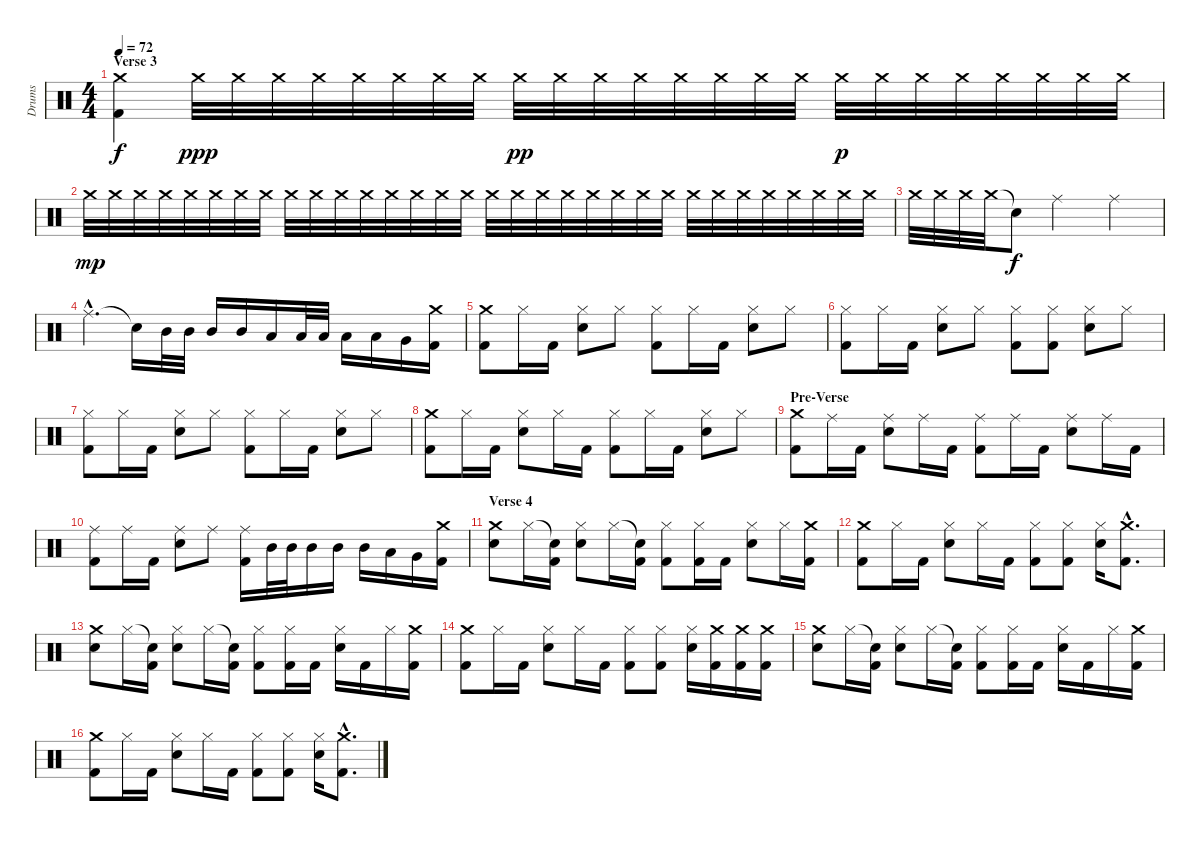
\track ("Drums" "Drums") {instrument percussion}
\staff {score}
\articulation defaults
\ts (4 4)
\section ("" "Verse 3")
\tempo 72
\clef neutral
\ks c
("Crash medium (hit)" "Kick (hit) 2").4{dy f} "Crash medium (hit)".32{dy ppp} "Crash medium (hit)".32 "Crash medium (hit)".32 "Crash medium (hit)".32 "Crash medium (hit)".32 "Crash medium (hit)".32 "Crash medium (hit)".32 "Crash medium (hit)".32 "Crash medium (hit)".32{dy pp} "Crash medium (hit)".32 "Crash medium (hit)".32 "Crash medium (hit)".32 "Crash medium (hit)".32 "Crash medium (hit)".32 "Crash medium (hit)".32 "Crash medium (hit)".32 "Crash medium (hit)".32{dy p} "Crash medium (hit)".32 "Crash medium (hit)".32 "Crash medium (hit)".32 "Crash medium (hit)".32 "Crash medium (hit)".32 "Crash medium (hit)".32 "Crash medium (hit)".32 |
"Crash medium (hit)".32{dy mp} "Crash medium (hit)".32 "Crash medium (hit)".32 "Crash medium (hit)".32 "Crash medium (hit)".32 "Crash medium (hit)".32 "Crash medium (hit)".32 "Crash medium (hit)".32 "Crash medium (hit)".32 "Crash medium (hit)".32 "Crash medium (hit)".32 "Crash medium (hit)".32 "Crash medium (hit)".32 "Crash medium (hit)".32 "Crash medium (hit)".32 "Crash medium (hit)".32 "Crash medium (hit)".32 "Crash medium (hit)".32 "Crash medium (hit)".32 "Crash medium (hit)".32 "Crash medium (hit)".32 "Crash medium (hit)".32 "Crash medium (hit)".32 "Crash medium (hit)".32 "Crash medium (hit)".32 "Crash medium (hit)".32 "Crash medium (hit)".32 "Crash medium (hit)".32 "Crash medium (hit)".32 "Crash medium (hit)".32 "Crash medium (hit)".32 "Crash medium (hit)".32 |
"Crash medium (hit)".32 "Crash medium (hit)".32 "Crash medium (hit)".32 "Crash medium (hit)".32 "Snare (hit)"{t}.8{dy f} "Ride (middle)".2 "Ride (middle)".4 |
"Ride (middle)"{hac}.4{d} "Snare (hit)"{t}.16 "Mid Tom (hit)".32 "Mid Tom (hit)".32 "Mid Tom (hit)".16 "Mid Tom (hit)".16 "Low Tom (hit)".16 "Low Tom (hit)".32 "Low Tom (hit)".32 "Low Tom (hit)".16 "Low Tom (hit)".16 "Very Low Tom (hit)".16 ("Crash medium (hit)" "Kick (hit) 2").16 |
("Crash medium (hit)" "Kick (hit) 2").8 "Hi-Hat (closed)".16 "Kick (hit) 2".16 ("Hi-Hat (closed)" "Snare (hit) 2").8 "Hi-Hat (closed)".8 ("Hi-Hat (closed)" "Kick (hit) 2").8 "Hi-Hat (closed)".16 "Kick (hit) 2".16 ("Hi-Hat (closed)" "Snare (hit) 2").8 "Hi-Hat (closed)".8 |
("Hi-Hat (closed)" "Kick (hit) 2").8 "Hi-Hat (closed)".16 "Kick (hit) 2".16 ("Hi-Hat (closed)" "Snare (hit) 2").8 "Hi-Hat (closed)".8 ("Hi-Hat (closed)" "Kick (hit) 2").8 ("Hi-Hat (closed)" "Kick (hit) 2").8 ("Hi-Hat (closed)" "Snare (hit) 2").8 "Hi-Hat (closed)".8 |
("Hi-Hat (closed)" "Kick (hit) 2").8 "Hi-Hat (closed)".16 "Kick (hit) 2".16 ("Hi-Hat (closed)" "Snare (hit) 2").8 "Hi-Hat (closed)".8 ("Hi-Hat (closed)" "Kick (hit) 2").8 "Hi-Hat (closed)".16 "Kick (hit) 2".16 ("Hi-Hat (closed)" "Snare (hit) 2").8 "Hi-Hat (closed)".8 |
("Crash medium (hit)" "Kick (hit) 2").8 "Hi-Hat (closed)".16 "Kick (hit) 2".16 ("Hi-Hat (closed)" "Snare (hit) 2").8 "Hi-Hat (closed)".16 "Kick (hit) 2".16 ("Hi-Hat (closed)" "Kick (hit) 2").8 "Hi-Hat (closed)".16 "Kick (hit) 2".16 ("Hi-Hat (closed)" "Snare (hit) 2").8 "Hi-Hat (closed)".8 |
\section ("" "Pre-Verse")
("Crash medium (hit)" "Kick (hit) 2").8 "Ride (middle)".16 "Kick (hit) 2".16 ("Ride (middle)" "Snare (hit) 2").8 "Ride (middle)".16 "Kick (hit) 2".16 ("Ride (middle)" "Kick (hit) 2").8 "Ride (middle)".16 "Kick (hit) 2".16 ("Ride (middle)" "Snare (hit) 2").8 "Ride (middle)".16 "Kick (hit) 2".16 |
("Ride (middle)" "Kick (hit) 2").8 "Ride (middle)".16 "Kick (hit) 2".16 ("Ride (middle)" "Snare (hit) 2").8 "Ride (middle)".8 ("Ride (middle)" "Kick (hit) 2").16 "Mid Tom (hit)".32 "Mid Tom (hit)".32 "Mid Tom (hit)".16 "Mid Tom (hit)".16 "Mid Tom (hit)".16 "Low Tom (hit)".16 "Very Low Tom (hit)".16 ("Crash medium (hit)" "Kick (hit) 2").16 |
\section ("" "Verse 4")
("Crash medium (hit)" "Snare (hit) 2").8 "Hi-Hat (closed)".16 ("Snare (hit)"{t} "Kick (hit) 2").16 ("Hi-Hat (closed)" "Snare (hit) 2").8 "Hi-Hat (closed)".16 ("Snare (hit)"{t} "Kick (hit) 2").16 ("Hi-Hat (closed)" "Kick (hit) 2").8 ("Hi-Hat (closed)" "Kick (hit) 2").16 "Kick (hit) 2".16 ("Hi-Hat (closed)" "Snare (hit) 2").8 "Hi-Hat (closed)".16 ("Crash medium (hit)" "Kick (hit) 2").16 |
("Crash medium (hit)" "Kick (hit) 2").8 "Hi-Hat (closed)".16 "Kick (hit) 2".16 ("Hi-Hat (closed)" "Snare (hit) 2").8 "Hi-Hat (closed)".16 "Kick (hit) 2".16 ("Hi-Hat (closed)" "Kick (hit) 2").8 ("Hi-Hat (closed)" "Kick (hit) 2").8 ("Hi-Hat (closed)" "Snare (hit) 2").16 ("Crash medium (hit)"{hac} "Kick (hit) 2"{hac}).8{d} |
("Crash medium (hit)" "Snare (hit) 2").8 "Hi-Hat (closed)".16 ("Snare (hit)"{t} "Kick (hit) 2").16 ("Hi-Hat (closed)" "Snare (hit) 2").8 "Hi-Hat (closed)".16 ("Snare (hit)"{t} "Kick (hit) 2").16 ("Hi-Hat (closed)" "Kick (hit) 2").8 ("Hi-Hat (closed)" "Kick (hit) 2").16 "Kick (hit) 2".16 ("Hi-Hat (closed)" "Snare (hit) 2").16 "Kick (hit) 2".16 "Hi-Hat (closed)".16 ("Crash medium (hit)" "Kick (hit) 2").16 |
("Crash medium (hit)" "Kick (hit) 2").8 "Hi-Hat (closed)".16 "Kick (hit) 2".16 ("Hi-Hat (closed)" "Snare (hit) 2").8 "Hi-Hat (closed)".16 "Kick (hit) 2".16 ("Hi-Hat (closed)" "Kick (hit) 2").8 ("Hi-Hat (closed)" "Kick (hit) 2").8 ("Hi-Hat (closed)" "Snare (hit) 2").16 ("Crash medium (hit)" "Kick (hit) 2").16 ("Crash medium (hit)" "Kick (hit) 2").16 ("Crash medium (hit)" "Kick (hit) 2").16 |
("Crash medium (hit)" "Snare (hit) 2").8 "Hi-Hat (closed)".16 ("Snare (hit)"{t} "Kick (hit) 2").16 ("Hi-Hat (closed)" "Snare (hit) 2").8 "Hi-Hat (closed)".16 ("Snare (hit)"{t} "Kick (hit) 2").16 ("Hi-Hat (closed)" "Kick (hit) 2").8 ("Hi-Hat (closed)" "Kick (hit) 2").16 "Kick (hit) 2".16 ("Hi-Hat (closed)" "Snare (hit) 2").16 "Kick (hit) 2".16 "Hi-Hat (closed)".16 ("Crash medium (hit)" "Kick (hit) 2").16 |
("Crash medium (hit)" "Kick (hit) 2").8 "Hi-Hat (closed)".16 "Kick (hit) 2".16 ("Hi-Hat (closed)" "Snare (hit) 2").8 "Hi-Hat (closed)".16 "Kick (hit) 2".16 ("Hi-Hat (closed)" "Kick (hit) 2").8 ("Hi-Hat (closed)" "Kick (hit) 2").8 ("Hi-Hat (closed)" "Snare (hit) 2").16 ("Crash medium (hit)"{hac} "Kick (hit) 2"{hac}).8{d}
